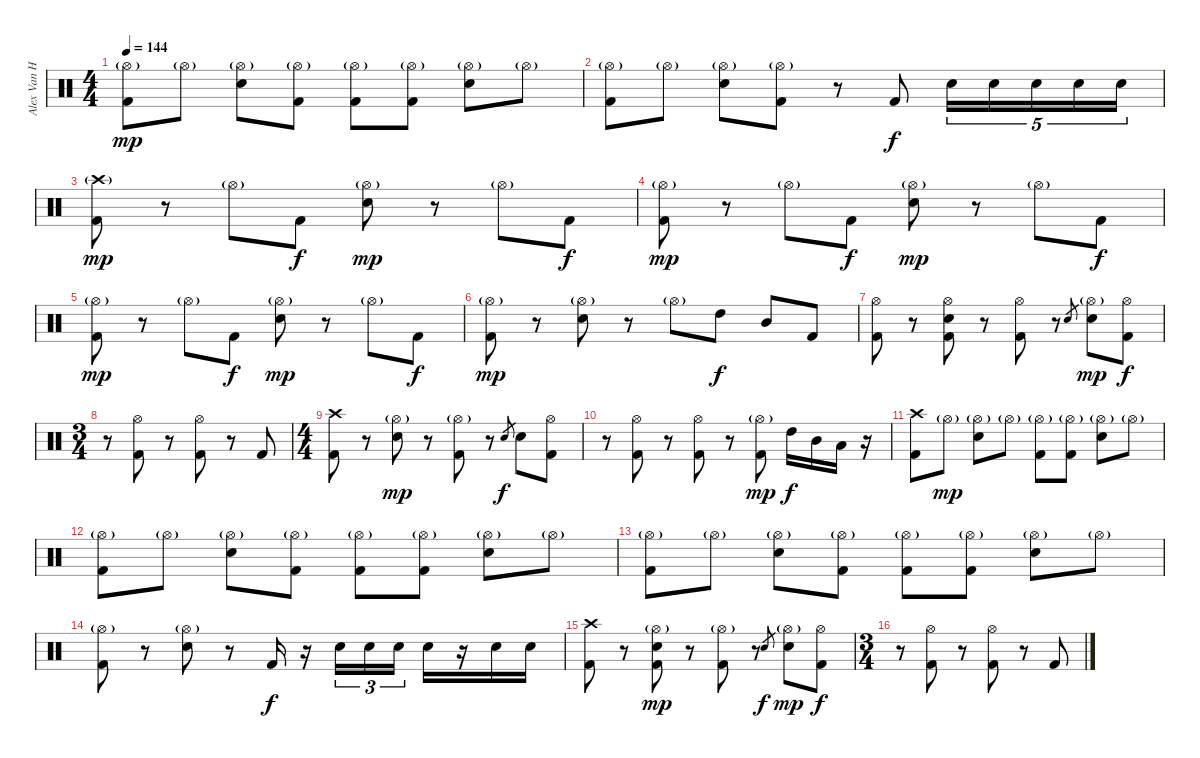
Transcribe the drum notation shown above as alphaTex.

\track ("Alex Van Halen" "Alex Van H") {instrument percussion}
\staff {score}
\articulation defaults
\ts (4 4)
\tempo 144
\clef neutral
\ks c
("Hi-Hat (open)"{g} "Kick (hit) 2").8{dy mp} "Hi-Hat (open)"{g}.8 ("Hi-Hat (open)"{g} "Electric Snare (hit)").8 ("Hi-Hat (open)"{g} "Kick (hit) 2").8 ("Hi-Hat (open)"{g} "Kick (hit) 2").8 ("Hi-Hat (open)"{g} "Kick (hit) 2").8 ("Hi-Hat (open)"{g} "Electric Snare (hit)").8 "Hi-Hat (open)"{g}.8 |
("Hi-Hat (open)"{g} "Kick (hit) 2").8 "Hi-Hat (open)"{g}.8 ("Hi-Hat (open)"{g} "Electric Snare (hit)").8 ("Hi-Hat (open)"{g} "Kick (hit) 2").8 r.8 "Kick (hit) 2".8{dy f} "Electric Snare (hit)".16{tu (5 4)} "Electric Snare (hit)".16{tu (5 4)} "Electric Snare (hit)".16{tu (5 4)} "Electric Snare (hit)".16{tu (5 4)} "Electric Snare (hit)".16{tu (5 4)} |
("Crash high (hit)"{g} "Kick (hit) 2").8{dy mp} r.8 "Hi-Hat (open)"{g}.8 "Kick (hit) 2".8{dy f} ("Hi-Hat (open)"{g} "Electric Snare (hit)").8{dy mp} r.8 "Hi-Hat (open)"{g}.8 "Kick (hit) 2".8{dy f} |
("Hi-Hat (open)"{g} "Kick (hit) 2").8{dy mp} r.8 "Hi-Hat (open)"{g}.8 "Kick (hit) 2".8{dy f} ("Hi-Hat (open)"{g} "Electric Snare (hit)").8{dy mp} r.8 "Hi-Hat (open)"{g}.8 "Kick (hit) 2".8{dy f} |
("Hi-Hat (open)"{g} "Kick (hit) 2").8{dy mp} r.8 "Hi-Hat (open)"{g}.8 "Kick (hit) 2".8{dy f} ("Hi-Hat (open)"{g} "Electric Snare (hit)").8{dy mp} r.8 "Hi-Hat (open)"{g}.8 "Kick (hit) 2".8{dy f} |
("Hi-Hat (open)"{g} "Kick (hit) 2").8{dy mp} r.8 ("Hi-Hat (open)"{g} "Electric Snare (hit)").8 r.8 "Hi-Hat (open)"{g}.8 "High Tom (hit)".8{dy f} "Mid Tom (hit)".8 "Kick (hit) 2".8 |
("Hi-Hat (open)" "Kick (hit) 2").8 r.8 ("Hi-Hat (open)" "Electric Snare (hit)" "Kick (hit) 2").8 r.8 ("Hi-Hat (open)" "Kick (hit) 2").8 r.8 "Electric Snare (hit)".8{gr} ("Hi-Hat (open)"{g} "Electric Snare (hit)").8{dy mp} ("Hi-Hat (open)" "Kick (hit) 2").8{dy f} |
\ts (3 4)
r.8 ("Hi-Hat (open)" "Kick (hit) 2").8 r.8 ("Hi-Hat (open)" "Kick (hit) 2").8 r.8 "Kick (hit) 2".8 |
\ts (4 4)
("Crash high (hit)" "Kick (hit) 2").8 r.8 ("Hi-Hat (open)"{g} "Electric Snare (hit)").8{dy mp} r.8 ("Hi-Hat (open)"{g} "Kick (hit) 2").8 r.8 "Electric Snare (hit)".8{gr dy f} "Electric Snare (hit)".8 ("Hi-Hat (open)" "Kick (hit) 2").8 |
r.8 ("Hi-Hat (open)" "Kick (hit) 2").8 r.8 ("Hi-Hat (open)" "Kick (hit) 2").8 r.8 ("Hi-Hat (open)"{g} "Kick (hit) 2").8{dy mp} "High Tom (hit)".16{dy f} "Mid Tom (hit)".16 "Low Tom (hit)".16 r.16 |
("Crash high (hit)" "Kick (hit) 2").8 "Hi-Hat (open)"{g}.8{dy mp} ("Hi-Hat (open)"{g} "Electric Snare (hit)").8 "Hi-Hat (open)"{g}.8 ("Hi-Hat (open)"{g} "Kick (hit) 2").8 ("Hi-Hat (open)"{g} "Kick (hit) 2").8 ("Hi-Hat (open)"{g} "Electric Snare (hit)").8 "Hi-Hat (open)"{g}.8 |
("Hi-Hat (open)"{g} "Kick (hit) 2").8 "Hi-Hat (open)"{g}.8 ("Hi-Hat (open)"{g} "Electric Snare (hit)").8 ("Hi-Hat (open)"{g} "Kick (hit) 2").8 ("Hi-Hat (open)"{g} "Kick (hit) 2").8 ("Hi-Hat (open)"{g} "Kick (hit) 2").8 ("Hi-Hat (open)"{g} "Electric Snare (hit)").8 "Hi-Hat (open)"{g}.8 |
("Hi-Hat (open)"{g} "Kick (hit) 2").8 "Hi-Hat (open)"{g}.8 ("Hi-Hat (open)"{g} "Electric Snare (hit)").8 ("Hi-Hat (open)"{g} "Kick (hit) 2").8 ("Hi-Hat (open)"{g} "Kick (hit) 2").8 ("Hi-Hat (open)"{g} "Kick (hit) 2").8 ("Hi-Hat (open)"{g} "Electric Snare (hit)").8 "Hi-Hat (open)"{g}.8 |
("Hi-Hat (open)"{g} "Kick (hit) 2").8 r.8 ("Hi-Hat (open)"{g} "Electric Snare (hit)").8 r.8 "Kick (hit) 2".16{dy f} r.16 "Electric Snare (hit)".16{tu (3 2)} "Electric Snare (hit)".16{tu (3 2)} "Electric Snare (hit)".16{tu (3 2)} "Electric Snare (hit)".16 r.16 "Electric Snare (hit)".16 "Electric Snare (hit)".16 |
("Crash high (hit)" "Kick (hit) 2").8 r.8 ("Hi-Hat (open)"{g} "Electric Snare (hit)" "Kick (hit) 2").8{dy mp} r.8 ("Hi-Hat (open)"{g} "Kick (hit) 2").8 r.8 "Electric Snare (hit)".8{gr dy f} ("Hi-Hat (open)"{g} "Electric Snare (hit)").8{dy mp} ("Hi-Hat (open)" "Kick (hit) 2").8{dy f} |
\ts (3 4)
r.8 ("Hi-Hat (open)" "Kick (hit) 2").8 r.8 ("Hi-Hat (open)" "Kick (hit) 2").8 r.8 "Kick (hit) 2".8
